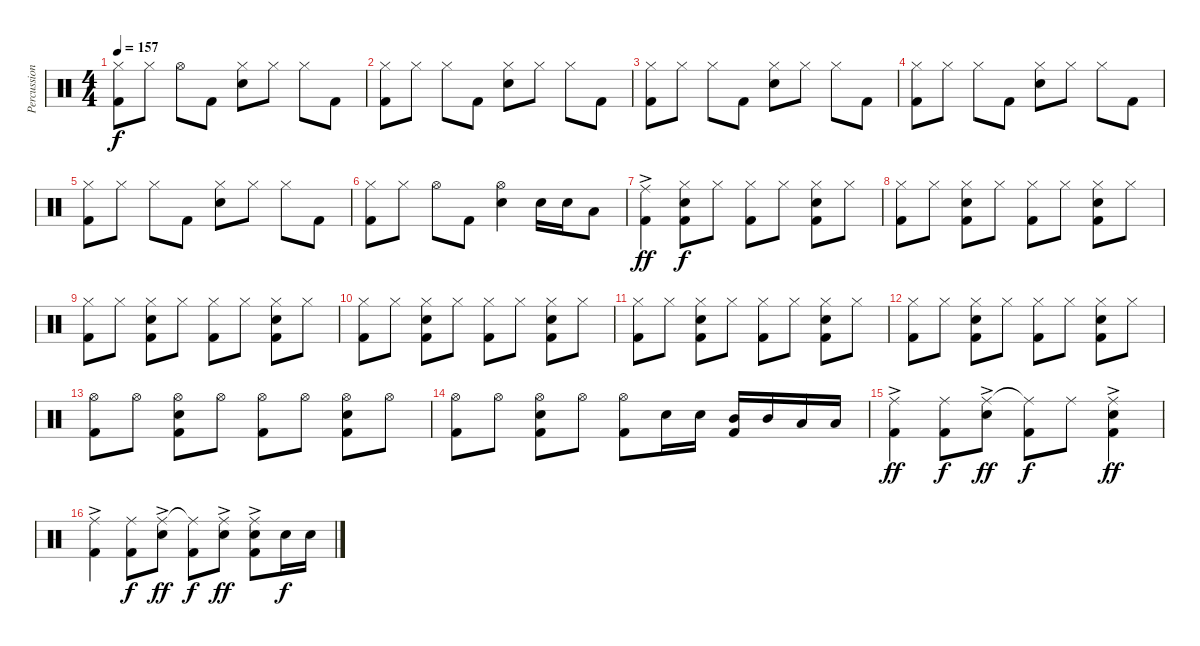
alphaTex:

\track ("Percussion" "Percussion") {instrument percussion}
\staff {score}
\articulation defaults
\ts (4 4)
\tempo 157
\clef neutral
\ks c
("Hi-Hat (closed)" "Kick (hit) 2").8{dy f} "Hi-Hat (closed)".8 "Hi-Hat (open)".8 "Kick (hit) 2".8 ("Hi-Hat (closed)" "Snare (hit) 2").8 "Hi-Hat (closed)".8 "Hi-Hat (closed)".8 "Kick (hit) 2".8 |
("Hi-Hat (closed)" "Kick (hit) 2").8 "Hi-Hat (closed)".8 "Hi-Hat (closed)".8 "Kick (hit) 2".8 ("Hi-Hat (closed)" "Snare (hit) 2").8 "Hi-Hat (closed)".8 "Hi-Hat (closed)".8 "Kick (hit) 2".8 |
("Hi-Hat (closed)" "Kick (hit) 2").8 "Hi-Hat (closed)".8 "Hi-Hat (closed)".8 "Kick (hit) 2".8 ("Hi-Hat (closed)" "Snare (hit) 2").8 "Hi-Hat (closed)".8 "Hi-Hat (closed)".8 "Kick (hit) 2".8 |
("Hi-Hat (closed)" "Kick (hit) 2").8 "Hi-Hat (closed)".8 "Hi-Hat (closed)".8 "Kick (hit) 2".8 ("Hi-Hat (closed)" "Snare (hit) 2").8 "Hi-Hat (closed)".8 "Hi-Hat (closed)".8 "Kick (hit) 2".8 |
("Hi-Hat (closed)" "Kick (hit) 2").8 "Hi-Hat (closed)".8 "Hi-Hat (closed)".8 "Kick (hit) 2".8 ("Hi-Hat (closed)" "Snare (hit) 2").8 "Hi-Hat (closed)".8 "Hi-Hat (closed)".8 "Kick (hit) 2".8 |
("Hi-Hat (closed)" "Kick (hit) 2").8 "Hi-Hat (closed)".8 "Hi-Hat (open)".8 "Kick (hit) 2".8 ("Hi-Hat (open)" "Snare (hit) 2").4 "Snare (hit) 2".16 "Snare (hit) 2".16 "Low Tom (hit)".8 |
("Ride (middle)"{ac} "Kick (hit) 2").4{dy ff} ("Hi-Hat (closed)" "Snare (hit) 2" "Kick (hit) 2").8{dy f} "Hi-Hat (closed)".8 ("Hi-Hat (closed)" "Kick (hit) 2").8 "Hi-Hat (closed)".8 ("Hi-Hat (closed)" "Snare (hit) 2" "Kick (hit) 2").8 "Hi-Hat (closed)".8 |
("Hi-Hat (closed)" "Kick (hit) 2").8 "Hi-Hat (closed)".8 ("Hi-Hat (closed)" "Snare (hit) 2" "Kick (hit) 2").8 "Hi-Hat (closed)".8 ("Hi-Hat (closed)" "Kick (hit) 2").8 "Hi-Hat (closed)".8 ("Hi-Hat (closed)" "Snare (hit) 2" "Kick (hit) 2").8 "Hi-Hat (closed)".8 |
("Hi-Hat (closed)" "Kick (hit) 2").8 "Hi-Hat (closed)".8 ("Hi-Hat (closed)" "Snare (hit) 2" "Kick (hit) 2").8 "Hi-Hat (closed)".8 ("Hi-Hat (closed)" "Kick (hit) 2").8 "Hi-Hat (closed)".8 ("Hi-Hat (closed)" "Snare (hit) 2" "Kick (hit) 2").8 "Hi-Hat (closed)".8 |
("Hi-Hat (closed)" "Kick (hit) 2").8 "Hi-Hat (closed)".8 ("Hi-Hat (closed)" "Snare (hit) 2" "Kick (hit) 2").8 "Hi-Hat (closed)".8 ("Hi-Hat (closed)" "Kick (hit) 2").8 "Hi-Hat (closed)".8 ("Hi-Hat (closed)" "Snare (hit) 2" "Kick (hit) 2").8 "Hi-Hat (closed)".8 |
("Hi-Hat (closed)" "Kick (hit) 2").8 "Hi-Hat (closed)".8 ("Hi-Hat (closed)" "Snare (hit) 2" "Kick (hit) 2").8 "Hi-Hat (closed)".8 ("Hi-Hat (closed)" "Kick (hit) 2").8 "Hi-Hat (closed)".8 ("Hi-Hat (closed)" "Snare (hit) 2" "Kick (hit) 2").8 "Hi-Hat (closed)".8 |
("Hi-Hat (closed)" "Kick (hit) 2").8 "Hi-Hat (closed)".8 ("Hi-Hat (closed)" "Snare (hit) 2" "Kick (hit) 2").8 "Hi-Hat (closed)".8 ("Hi-Hat (closed)" "Kick (hit) 2").8 "Hi-Hat (closed)".8 ("Hi-Hat (closed)" "Snare (hit) 2" "Kick (hit) 2").8 "Hi-Hat (closed)".8 |
("Hi-Hat (open)" "Kick (hit) 2").8 "Hi-Hat (open)".8 ("Hi-Hat (open)" "Snare (hit) 2" "Kick (hit) 2").8 "Hi-Hat (open)".8 ("Hi-Hat (open)" "Kick (hit) 2").8 "Hi-Hat (open)".8 ("Hi-Hat (open)" "Snare (hit) 2" "Kick (hit) 2").8 "Hi-Hat (open)".8 |
("Hi-Hat (open)" "Kick (hit) 2").8 "Hi-Hat (open)".8 ("Hi-Hat (open)" "Snare (hit) 2" "Kick (hit) 2").8 "Hi-Hat (open)".8 ("Hi-Hat (open)" "Kick (hit) 2").8 "Snare (hit) 2".16 "Snare (hit) 2".16 ("Mid Tom (hit)" "Kick (hit) 2").16 "Mid Tom (hit)".16 "Low Tom (hit)".16 "Low Tom (hit)".16 |
("Ride (middle)"{ac} "Kick (hit) 2").4{dy ff} ("Ride (middle)" "Kick (hit) 2").8{dy f} ("Ride (middle)"{ac} "Snare (hit) 2").8{dy ff} ("Ride (middle)"{t} "Kick (hit) 2").8{dy f} "Ride (middle)".8 ("Ride (middle)"{ac} "Snare (hit) 2" "Kick (hit) 2").4{dy ff} |
("Ride (middle)"{ac} "Kick (hit) 2").4 ("Ride (middle)" "Kick (hit) 2").8{dy f} ("Ride (middle)"{ac} "Snare (hit) 2").8{dy ff} ("Ride (middle)"{t} "Kick (hit) 2").8{dy f} ("Ride (middle)"{ac} "Snare (hit) 2").8{dy ff} ("Ride (middle)"{ac} "Snare (hit) 2" "Kick (hit) 2").8 "Snare (hit) 2".16{dy f} "Snare (hit) 2".16
